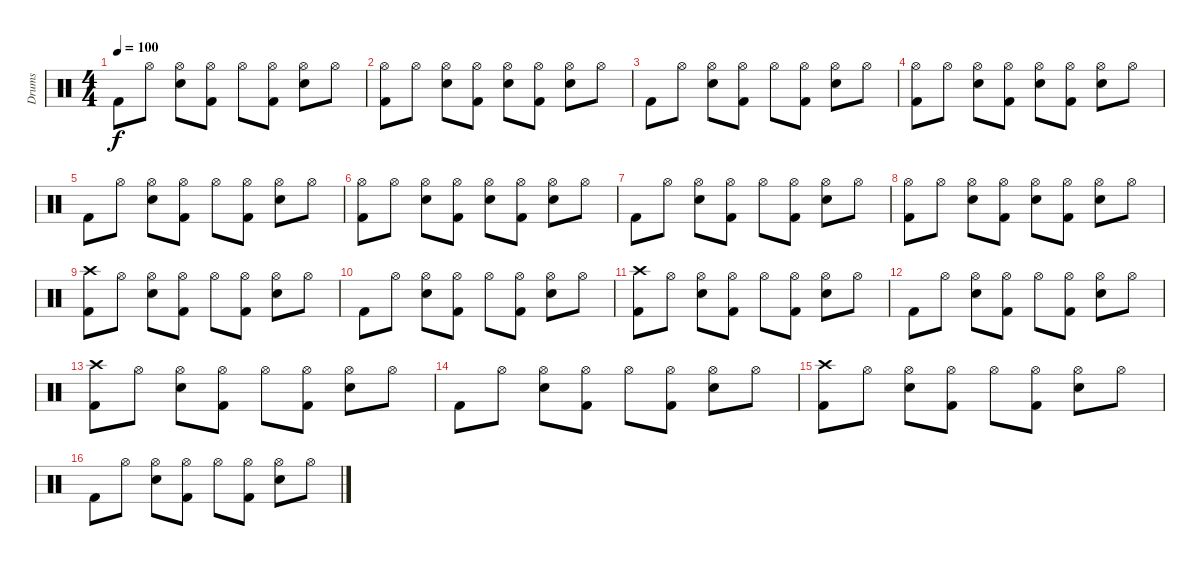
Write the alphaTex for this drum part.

\track ("Drums" "Drums") {instrument percussion}
\staff {score}
\articulation defaults
\ts (4 4)
\tempo 100
\clef neutral
\ks c "Kick (hit) 2".8{dy f} "Hi-Hat (open)".8
("Hi-Hat (open)" "Electric Snare (hit)").8 ("Hi-Hat (open)" "Kick (hit) 2").8 "Hi-Hat (open)".8 ("Hi-Hat (open)" "Kick (hit) 2").8 ("Hi-Hat (open)" "Electric Snare (hit)").8 "Hi-Hat (open)".8 |
("Hi-Hat (open)" "Kick (hit) 2").8 "Hi-Hat (open)".8 ("Hi-Hat (open)" "Electric Snare (hit)").8 ("Hi-Hat (open)" "Kick (hit) 2").8 ("Hi-Hat (open)" "Electric Snare (hit)").8 ("Hi-Hat (open)" "Kick (hit) 2").8 ("Hi-Hat (open)" "Electric Snare (hit)").8 "Hi-Hat (open)".8 |
"Kick (hit) 2".8 "Hi-Hat (open)".8 ("Hi-Hat (open)" "Electric Snare (hit)").8 ("Hi-Hat (open)" "Kick (hit) 2").8 "Hi-Hat (open)".8 ("Hi-Hat (open)" "Kick (hit) 2").8 ("Hi-Hat (open)" "Electric Snare (hit)").8 "Hi-Hat (open)".8 |
("Hi-Hat (open)" "Kick (hit) 2").8 "Hi-Hat (open)".8 ("Hi-Hat (open)" "Electric Snare (hit)").8 ("Hi-Hat (open)" "Kick (hit) 2").8 ("Hi-Hat (open)" "Electric Snare (hit)").8 ("Hi-Hat (open)" "Kick (hit) 2").8 ("Hi-Hat (open)" "Electric Snare (hit)").8 "Hi-Hat (open)".8 |
"Kick (hit) 2".8 "Hi-Hat (open)".8 ("Hi-Hat (open)" "Electric Snare (hit)").8 ("Hi-Hat (open)" "Kick (hit) 2").8 "Hi-Hat (open)".8 ("Hi-Hat (open)" "Kick (hit) 2").8 ("Hi-Hat (open)" "Electric Snare (hit)").8 "Hi-Hat (open)".8 |
("Hi-Hat (open)" "Kick (hit) 2").8 "Hi-Hat (open)".8 ("Hi-Hat (open)" "Electric Snare (hit)").8 ("Hi-Hat (open)" "Kick (hit) 2").8 ("Hi-Hat (open)" "Electric Snare (hit)").8 ("Hi-Hat (open)" "Kick (hit) 2").8 ("Hi-Hat (open)" "Electric Snare (hit)").8 "Hi-Hat (open)".8 |
"Kick (hit) 2".8 "Hi-Hat (open)".8 ("Hi-Hat (open)" "Electric Snare (hit)").8 ("Hi-Hat (open)" "Kick (hit) 2").8 "Hi-Hat (open)".8 ("Hi-Hat (open)" "Kick (hit) 2").8 ("Hi-Hat (open)" "Electric Snare (hit)").8 "Hi-Hat (open)".8 |
("Hi-Hat (open)" "Kick (hit) 2").8 "Hi-Hat (open)".8 ("Hi-Hat (open)" "Electric Snare (hit)").8 ("Hi-Hat (open)" "Kick (hit) 2").8 ("Hi-Hat (open)" "Electric Snare (hit)").8 ("Hi-Hat (open)" "Kick (hit) 2").8 ("Hi-Hat (open)" "Electric Snare (hit)").8 "Hi-Hat (open)".8 |
("Crash high (hit)" "Kick (hit) 2").8 "Hi-Hat (open)".8 ("Hi-Hat (open)" "Electric Snare (hit)").8 ("Hi-Hat (open)" "Kick (hit) 2").8 "Hi-Hat (open)".8 ("Hi-Hat (open)" "Kick (hit) 2").8 ("Hi-Hat (open)" "Electric Snare (hit)").8 "Hi-Hat (open)".8 |
"Kick (hit) 2".8 "Hi-Hat (open)".8 ("Hi-Hat (open)" "Electric Snare (hit)").8 ("Hi-Hat (open)" "Kick (hit) 2").8 "Hi-Hat (open)".8 ("Hi-Hat (open)" "Kick (hit) 2").8 ("Hi-Hat (open)" "Electric Snare (hit)").8 "Hi-Hat (open)".8 |
("Crash high (hit)" "Kick (hit) 2").8 "Hi-Hat (open)".8 ("Hi-Hat (open)" "Electric Snare (hit)").8 ("Hi-Hat (open)" "Kick (hit) 2").8 "Hi-Hat (open)".8 ("Hi-Hat (open)" "Kick (hit) 2").8 ("Hi-Hat (open)" "Electric Snare (hit)").8 "Hi-Hat (open)".8 |
"Kick (hit) 2".8 "Hi-Hat (open)".8 ("Hi-Hat (open)" "Electric Snare (hit)").8 ("Hi-Hat (open)" "Kick (hit) 2").8 "Hi-Hat (open)".8 ("Hi-Hat (open)" "Kick (hit) 2").8 ("Hi-Hat (open)" "Electric Snare (hit)").8 "Hi-Hat (open)".8 |
("Crash high (hit)" "Kick (hit) 2").8 "Hi-Hat (open)".8 ("Hi-Hat (open)" "Electric Snare (hit)").8 ("Hi-Hat (open)" "Kick (hit) 2").8 "Hi-Hat (open)".8 ("Hi-Hat (open)" "Kick (hit) 2").8 ("Hi-Hat (open)" "Electric Snare (hit)").8 "Hi-Hat (open)".8 |
"Kick (hit) 2".8 "Hi-Hat (open)".8 ("Hi-Hat (open)" "Electric Snare (hit)").8 ("Hi-Hat (open)" "Kick (hit) 2").8 "Hi-Hat (open)".8 ("Hi-Hat (open)" "Kick (hit) 2").8 ("Hi-Hat (open)" "Electric Snare (hit)").8 "Hi-Hat (open)".8 |
("Crash high (hit)" "Kick (hit) 2").8 "Hi-Hat (open)".8 ("Hi-Hat (open)" "Electric Snare (hit)").8 ("Hi-Hat (open)" "Kick (hit) 2").8 "Hi-Hat (open)".8 ("Hi-Hat (open)" "Kick (hit) 2").8 ("Hi-Hat (open)" "Electric Snare (hit)").8 "Hi-Hat (open)".8 |
"Kick (hit) 2".8 "Hi-Hat (open)".8 ("Hi-Hat (open)" "Electric Snare (hit)").8 ("Hi-Hat (open)" "Kick (hit) 2").8 "Hi-Hat (open)".8 ("Hi-Hat (open)" "Kick (hit) 2").8 ("Hi-Hat (open)" "Electric Snare (hit)").8 "Hi-Hat (open)".8
